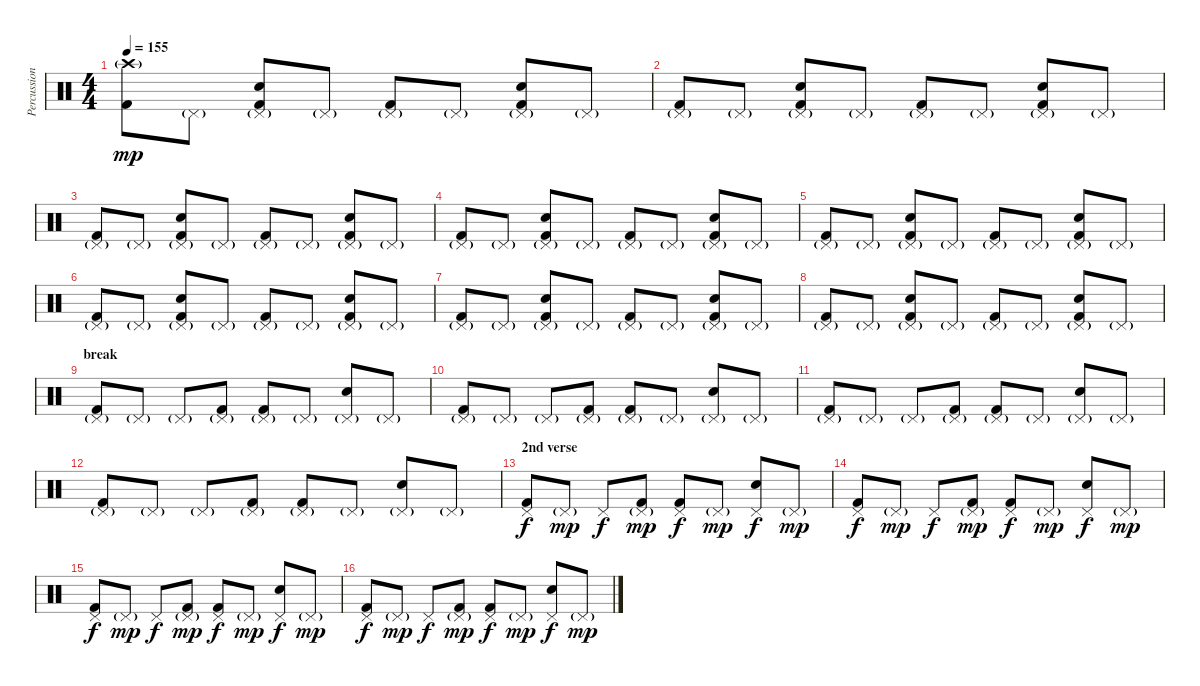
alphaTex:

\track ("Percussions" "Percussion") {instrument percussion}
\staff {score}
\articulation defaults
\ts (4 4)
\tempo 155
\clef neutral
\ks c
("Crash high (hit)"{g} "Kick (hit) 2").8{dy mp} "Pedal Hi-Hat (hit)"{g}.8 ("Pedal Hi-Hat (hit)"{g} "Snare (hit) 2" "Kick (hit) 2").8 "Pedal Hi-Hat (hit)"{g}.8 ("Pedal Hi-Hat (hit)"{g} "Kick (hit) 2").8 "Pedal Hi-Hat (hit)"{g}.8 ("Pedal Hi-Hat (hit)"{g} "Snare (hit) 2" "Kick (hit) 2").8 "Pedal Hi-Hat (hit)"{g}.8 |
("Pedal Hi-Hat (hit)"{g} "Kick (hit) 2").8 "Pedal Hi-Hat (hit)"{g}.8 ("Pedal Hi-Hat (hit)"{g} "Snare (hit) 2" "Kick (hit) 2").8 "Pedal Hi-Hat (hit)"{g}.8 ("Pedal Hi-Hat (hit)"{g} "Kick (hit) 2").8 "Pedal Hi-Hat (hit)"{g}.8 ("Pedal Hi-Hat (hit)"{g} "Snare (hit) 2" "Kick (hit) 2").8 "Pedal Hi-Hat (hit)"{g}.8 |
("Pedal Hi-Hat (hit)"{g} "Kick (hit) 2").8 "Pedal Hi-Hat (hit)"{g}.8 ("Pedal Hi-Hat (hit)"{g} "Snare (hit) 2" "Kick (hit) 2").8 "Pedal Hi-Hat (hit)"{g}.8 ("Pedal Hi-Hat (hit)"{g} "Kick (hit) 2").8 "Pedal Hi-Hat (hit)"{g}.8 ("Pedal Hi-Hat (hit)"{g} "Snare (hit) 2" "Kick (hit) 2").8 "Pedal Hi-Hat (hit)"{g}.8 |
("Pedal Hi-Hat (hit)"{g} "Kick (hit) 2").8 "Pedal Hi-Hat (hit)"{g}.8 ("Pedal Hi-Hat (hit)"{g} "Snare (hit) 2" "Kick (hit) 2").8 "Pedal Hi-Hat (hit)"{g}.8 ("Pedal Hi-Hat (hit)"{g} "Kick (hit) 2").8 "Pedal Hi-Hat (hit)"{g}.8 ("Pedal Hi-Hat (hit)"{g} "Snare (hit) 2" "Kick (hit) 2").8 "Pedal Hi-Hat (hit)"{g}.8 |
("Pedal Hi-Hat (hit)"{g} "Kick (hit) 2").8 "Pedal Hi-Hat (hit)"{g}.8 ("Pedal Hi-Hat (hit)"{g} "Snare (hit) 2" "Kick (hit) 2").8 "Pedal Hi-Hat (hit)"{g}.8 ("Pedal Hi-Hat (hit)"{g} "Kick (hit) 2").8 "Pedal Hi-Hat (hit)"{g}.8 ("Pedal Hi-Hat (hit)"{g} "Snare (hit) 2" "Kick (hit) 2").8 "Pedal Hi-Hat (hit)"{g}.8 |
("Pedal Hi-Hat (hit)"{g} "Kick (hit) 2").8 "Pedal Hi-Hat (hit)"{g}.8 ("Pedal Hi-Hat (hit)"{g} "Snare (hit) 2" "Kick (hit) 2").8 "Pedal Hi-Hat (hit)"{g}.8 ("Pedal Hi-Hat (hit)"{g} "Kick (hit) 2").8 "Pedal Hi-Hat (hit)"{g}.8 ("Pedal Hi-Hat (hit)"{g} "Snare (hit) 2" "Kick (hit) 2").8 "Pedal Hi-Hat (hit)"{g}.8 |
("Pedal Hi-Hat (hit)"{g} "Kick (hit) 2").8 "Pedal Hi-Hat (hit)"{g}.8 ("Pedal Hi-Hat (hit)"{g} "Snare (hit) 2" "Kick (hit) 2").8 "Pedal Hi-Hat (hit)"{g}.8 ("Pedal Hi-Hat (hit)"{g} "Kick (hit) 2").8 "Pedal Hi-Hat (hit)"{g}.8 ("Pedal Hi-Hat (hit)"{g} "Snare (hit) 2" "Kick (hit) 2").8 "Pedal Hi-Hat (hit)"{g}.8 |
("Pedal Hi-Hat (hit)"{g} "Kick (hit) 2").8 "Pedal Hi-Hat (hit)"{g}.8 ("Pedal Hi-Hat (hit)"{g} "Snare (hit) 2" "Kick (hit) 2").8 "Pedal Hi-Hat (hit)"{g}.8 ("Pedal Hi-Hat (hit)"{g} "Kick (hit) 2").8 "Pedal Hi-Hat (hit)"{g}.8 ("Pedal Hi-Hat (hit)"{g} "Snare (hit) 2" "Kick (hit) 2").8 "Pedal Hi-Hat (hit)"{g}.8 |
\section ("" "break")
("Pedal Hi-Hat (hit)"{g} "Kick (hit) 2").8 "Pedal Hi-Hat (hit)"{g}.8 "Pedal Hi-Hat (hit)"{g}.8 ("Pedal Hi-Hat (hit)"{g} "Kick (hit) 2").8 ("Pedal Hi-Hat (hit)"{g} "Kick (hit) 2").8 "Pedal Hi-Hat (hit)"{g}.8 ("Pedal Hi-Hat (hit)"{g} "Snare (hit) 2").8 "Pedal Hi-Hat (hit)"{g}.8 |
("Pedal Hi-Hat (hit)"{g} "Kick (hit) 2").8 "Pedal Hi-Hat (hit)"{g}.8 "Pedal Hi-Hat (hit)"{g}.8 ("Pedal Hi-Hat (hit)"{g} "Kick (hit) 2").8 ("Pedal Hi-Hat (hit)"{g} "Kick (hit) 2").8 "Pedal Hi-Hat (hit)"{g}.8 ("Pedal Hi-Hat (hit)"{g} "Snare (hit) 2").8 "Pedal Hi-Hat (hit)"{g}.8 |
("Pedal Hi-Hat (hit)"{g} "Kick (hit) 2").8 "Pedal Hi-Hat (hit)"{g}.8 "Pedal Hi-Hat (hit)"{g}.8 ("Pedal Hi-Hat (hit)"{g} "Kick (hit) 2").8 ("Pedal Hi-Hat (hit)"{g} "Kick (hit) 2").8 "Pedal Hi-Hat (hit)"{g}.8 ("Pedal Hi-Hat (hit)"{g} "Snare (hit) 2").8 "Pedal Hi-Hat (hit)"{g}.8 |
("Pedal Hi-Hat (hit)"{g} "Kick (hit) 2").8 "Pedal Hi-Hat (hit)"{g}.8 "Pedal Hi-Hat (hit)"{g}.8 ("Pedal Hi-Hat (hit)"{g} "Kick (hit) 2").8 ("Pedal Hi-Hat (hit)"{g} "Kick (hit) 2").8 "Pedal Hi-Hat (hit)"{g}.8 ("Pedal Hi-Hat (hit)"{g} "Snare (hit) 2").8 "Pedal Hi-Hat (hit)"{g}.8 |
\section ("" "2nd verse")
("Pedal Hi-Hat (hit)" "Kick (hit) 2").8{dy f} "Pedal Hi-Hat (hit)"{g}.8{dy mp} "Pedal Hi-Hat (hit)".8{dy f} ("Pedal Hi-Hat (hit)"{g} "Kick (hit) 2").8{dy mp} ("Pedal Hi-Hat (hit)" "Kick (hit) 2").8{dy f} "Pedal Hi-Hat (hit)"{g}.8{dy mp} ("Pedal Hi-Hat (hit)" "Snare (hit) 2").8{dy f} "Pedal Hi-Hat (hit)"{g}.8{dy mp} |
("Pedal Hi-Hat (hit)" "Kick (hit) 2").8{dy f} "Pedal Hi-Hat (hit)"{g}.8{dy mp} "Pedal Hi-Hat (hit)".8{dy f} ("Pedal Hi-Hat (hit)"{g} "Kick (hit) 2").8{dy mp} ("Pedal Hi-Hat (hit)" "Kick (hit) 2").8{dy f} "Pedal Hi-Hat (hit)"{g}.8{dy mp} ("Pedal Hi-Hat (hit)" "Snare (hit) 2").8{dy f} "Pedal Hi-Hat (hit)"{g}.8{dy mp} |
("Pedal Hi-Hat (hit)" "Kick (hit) 2").8{dy f} "Pedal Hi-Hat (hit)"{g}.8{dy mp} "Pedal Hi-Hat (hit)".8{dy f} ("Pedal Hi-Hat (hit)"{g} "Kick (hit) 2").8{dy mp} ("Pedal Hi-Hat (hit)" "Kick (hit) 2").8{dy f} "Pedal Hi-Hat (hit)"{g}.8{dy mp} ("Pedal Hi-Hat (hit)" "Snare (hit) 2").8{dy f} "Pedal Hi-Hat (hit)"{g}.8{dy mp} |
("Pedal Hi-Hat (hit)" "Kick (hit) 2").8{dy f} "Pedal Hi-Hat (hit)"{g}.8{dy mp} "Pedal Hi-Hat (hit)".8{dy f} ("Pedal Hi-Hat (hit)"{g} "Kick (hit) 2").8{dy mp} ("Pedal Hi-Hat (hit)" "Kick (hit) 2").8{dy f} "Pedal Hi-Hat (hit)"{g}.8{dy mp} ("Pedal Hi-Hat (hit)" "Snare (hit) 2").8{dy f} "Pedal Hi-Hat (hit)"{g}.8{dy mp}
